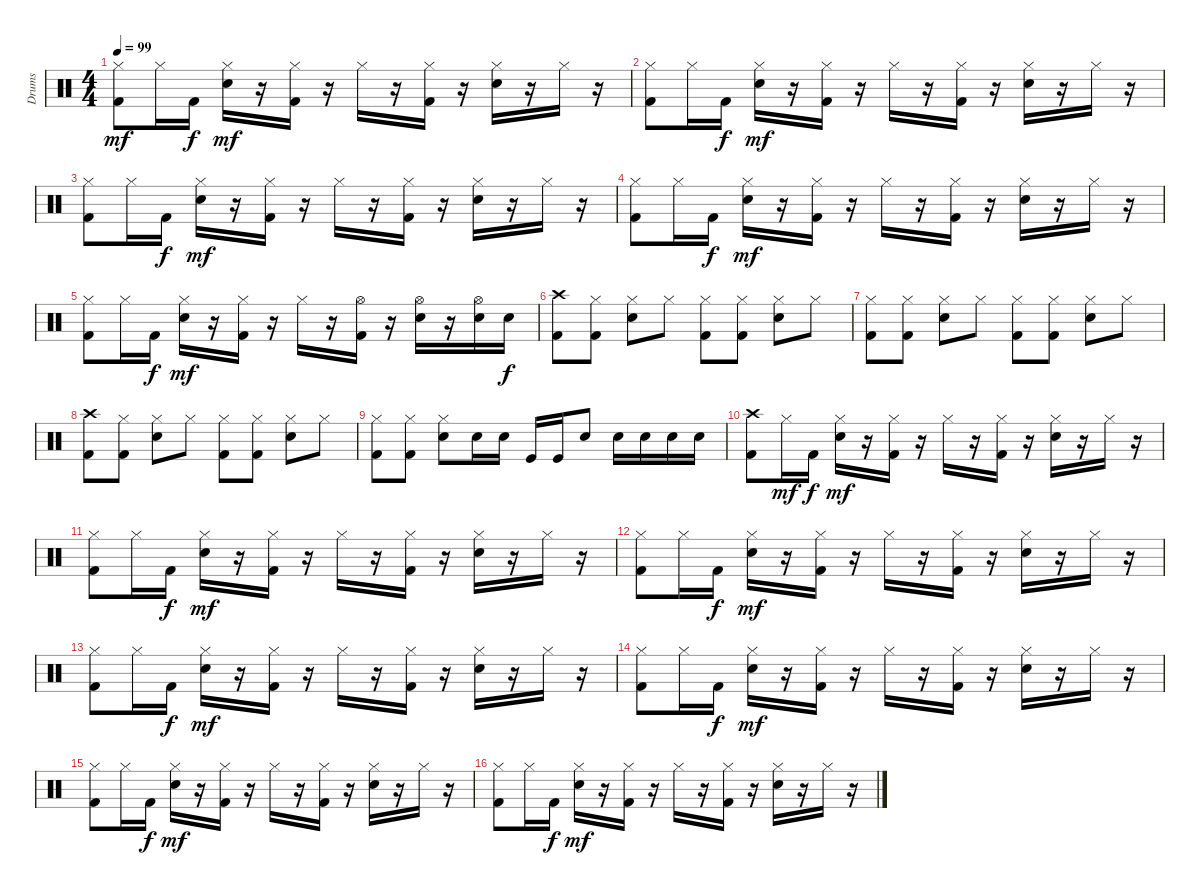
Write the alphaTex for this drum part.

\track ("Drums" "Drums") {instrument percussion}
\staff {score}
\articulation defaults
\ts (4 4)
\tempo 99
\clef neutral
\ks c
("Hi-Hat (closed)" "Kick (hit) 2").8{dy mf} "Hi-Hat (closed)".16 "Kick (hit) 2".16{dy f} ("Hi-Hat (closed)" "Snare (hit) 2").16{dy mf} r.16 ("Hi-Hat (closed)" "Kick (hit) 2").16 r.16 "Hi-Hat (closed)".16 r.16 ("Hi-Hat (closed)" "Kick (hit) 2").16 r.16 ("Hi-Hat (closed)" "Snare (hit) 2").16 r.16 "Hi-Hat (closed)".16 r.16 |
("Hi-Hat (closed)" "Kick (hit) 2").8 "Hi-Hat (closed)".16 "Kick (hit) 2".16{dy f} ("Hi-Hat (closed)" "Snare (hit) 2").16{dy mf} r.16 ("Hi-Hat (closed)" "Kick (hit) 2").16 r.16 "Hi-Hat (closed)".16 r.16 ("Hi-Hat (closed)" "Kick (hit) 2").16 r.16 ("Hi-Hat (closed)" "Snare (hit) 2").16 r.16 "Hi-Hat (closed)".16 r.16 |
("Hi-Hat (closed)" "Kick (hit) 2").8 "Hi-Hat (closed)".16 "Kick (hit) 2".16{dy f} ("Hi-Hat (closed)" "Snare (hit) 2").16{dy mf} r.16 ("Hi-Hat (closed)" "Kick (hit) 2").16 r.16 "Hi-Hat (closed)".16 r.16 ("Hi-Hat (closed)" "Kick (hit) 2").16 r.16 ("Hi-Hat (closed)" "Snare (hit) 2").16 r.16 "Hi-Hat (closed)".16 r.16 |
("Hi-Hat (closed)" "Kick (hit) 2").8 "Hi-Hat (closed)".16 "Kick (hit) 2".16{dy f} ("Hi-Hat (closed)" "Snare (hit) 2").16{dy mf} r.16 ("Hi-Hat (closed)" "Kick (hit) 2").16 r.16 "Hi-Hat (closed)".16 r.16 ("Hi-Hat (closed)" "Kick (hit) 2").16 r.16 ("Hi-Hat (closed)" "Snare (hit) 2").16 r.16 "Hi-Hat (closed)".16 r.16 |
("Hi-Hat (closed)" "Kick (hit) 2").8 "Hi-Hat (closed)".16 "Kick (hit) 2".16{dy f} ("Hi-Hat (closed)" "Snare (hit) 2").16{dy mf} r.16 ("Hi-Hat (closed)" "Kick (hit) 2").16 r.16 "Hi-Hat (closed)".16 r.16 ("Hi-Hat (open)" "Kick (hit) 2").16 r.16 ("Hi-Hat (open)" "Snare (hit) 2").16 r.16 ("Hi-Hat (open)" "Snare (hit) 2").16 "Snare (hit) 2".16{dy f} |
("Crash high (hit)" "Kick (hit) 2").8 ("Hi-Hat (closed)" "Kick (hit) 2").8 ("Hi-Hat (closed)" "Snare (hit) 2").8 "Hi-Hat (closed)".8 ("Hi-Hat (closed)" "Kick (hit) 2").8 ("Hi-Hat (closed)" "Kick (hit) 2").8 ("Hi-Hat (closed)" "Snare (hit) 2").8 "Hi-Hat (closed)".8 |
("Hi-Hat (closed)" "Kick (hit) 2").8 ("Hi-Hat (closed)" "Kick (hit) 2").8 ("Hi-Hat (closed)" "Snare (hit) 2").8 "Hi-Hat (closed)".8 ("Hi-Hat (closed)" "Kick (hit) 2").8 ("Hi-Hat (closed)" "Kick (hit) 2").8 ("Hi-Hat (closed)" "Snare (hit) 2").8 "Hi-Hat (closed)".8 |
("Crash high (hit)" "Kick (hit) 2").8 ("Hi-Hat (closed)" "Kick (hit) 2").8 ("Hi-Hat (closed)" "Snare (hit) 2").8 "Hi-Hat (closed)".8 ("Hi-Hat (closed)" "Kick (hit) 2").8 ("Hi-Hat (closed)" "Kick (hit) 2").8 ("Hi-Hat (closed)" "Snare (hit) 2").8 "Hi-Hat (closed)".8 |
("Hi-Hat (closed)" "Kick (hit) 2").8 ("Hi-Hat (closed)" "Kick (hit) 2").8 ("Hi-Hat (closed)" "Snare (hit) 2").8 "Snare (hit) 2".16 "Snare (hit) 2".16 "Kick (hit)".16 "Kick (hit)".16 "Snare (hit) 2".8 "Snare (hit) 2".16 "Snare (hit) 2".16 "Snare (hit) 2".16 "Snare (hit) 2".16 |
("Crash high (hit)" "Kick (hit) 2").8 "Hi-Hat (closed)".16{dy mf} "Kick (hit) 2".16{dy f} ("Hi-Hat (closed)" "Snare (hit) 2").16{dy mf} r.16 ("Hi-Hat (closed)" "Kick (hit) 2").16 r.16 "Hi-Hat (closed)".16 r.16 ("Hi-Hat (closed)" "Kick (hit) 2").16 r.16 ("Hi-Hat (closed)" "Snare (hit) 2").16 r.16 "Hi-Hat (closed)".16 r.16 |
("Hi-Hat (closed)" "Kick (hit) 2").8 "Hi-Hat (closed)".16 "Kick (hit) 2".16{dy f} ("Hi-Hat (closed)" "Snare (hit) 2").16{dy mf} r.16 ("Hi-Hat (closed)" "Kick (hit) 2").16 r.16 "Hi-Hat (closed)".16 r.16 ("Hi-Hat (closed)" "Kick (hit) 2").16 r.16 ("Hi-Hat (closed)" "Snare (hit) 2").16 r.16 "Hi-Hat (closed)".16 r.16 |
("Hi-Hat (closed)" "Kick (hit) 2").8 "Hi-Hat (closed)".16 "Kick (hit) 2".16{dy f} ("Hi-Hat (closed)" "Snare (hit) 2").16{dy mf} r.16 ("Hi-Hat (closed)" "Kick (hit) 2").16 r.16 "Hi-Hat (closed)".16 r.16 ("Hi-Hat (closed)" "Kick (hit) 2").16 r.16 ("Hi-Hat (closed)" "Snare (hit) 2").16 r.16 "Hi-Hat (closed)".16 r.16 |
("Hi-Hat (closed)" "Kick (hit) 2").8 "Hi-Hat (closed)".16 "Kick (hit) 2".16{dy f} ("Hi-Hat (closed)" "Snare (hit) 2").16{dy mf} r.16 ("Hi-Hat (closed)" "Kick (hit) 2").16 r.16 "Hi-Hat (closed)".16 r.16 ("Hi-Hat (closed)" "Kick (hit) 2").16 r.16 ("Hi-Hat (closed)" "Snare (hit) 2").16 r.16 "Hi-Hat (closed)".16 r.16 |
("Hi-Hat (closed)" "Kick (hit) 2").8 "Hi-Hat (closed)".16 "Kick (hit) 2".16{dy f} ("Hi-Hat (closed)" "Snare (hit) 2").16{dy mf} r.16 ("Hi-Hat (closed)" "Kick (hit) 2").16 r.16 "Hi-Hat (closed)".16 r.16 ("Hi-Hat (closed)" "Kick (hit) 2").16 r.16 ("Hi-Hat (closed)" "Snare (hit) 2").16 r.16 "Hi-Hat (closed)".16 r.16 |
("Hi-Hat (closed)" "Kick (hit) 2").8 "Hi-Hat (closed)".16 "Kick (hit) 2".16{dy f} ("Hi-Hat (closed)" "Snare (hit) 2").16{dy mf} r.16 ("Hi-Hat (closed)" "Kick (hit) 2").16 r.16 "Hi-Hat (closed)".16 r.16 ("Hi-Hat (closed)" "Kick (hit) 2").16 r.16 ("Hi-Hat (closed)" "Snare (hit) 2").16 r.16 "Hi-Hat (closed)".16 r.16 |
("Hi-Hat (closed)" "Kick (hit) 2").8 "Hi-Hat (closed)".16 "Kick (hit) 2".16{dy f} ("Hi-Hat (closed)" "Snare (hit) 2").16{dy mf} r.16 ("Hi-Hat (closed)" "Kick (hit) 2").16 r.16 "Hi-Hat (closed)".16 r.16 ("Hi-Hat (closed)" "Kick (hit) 2").16 r.16 ("Hi-Hat (closed)" "Snare (hit) 2").16 r.16 "Hi-Hat (closed)".16 r.16
